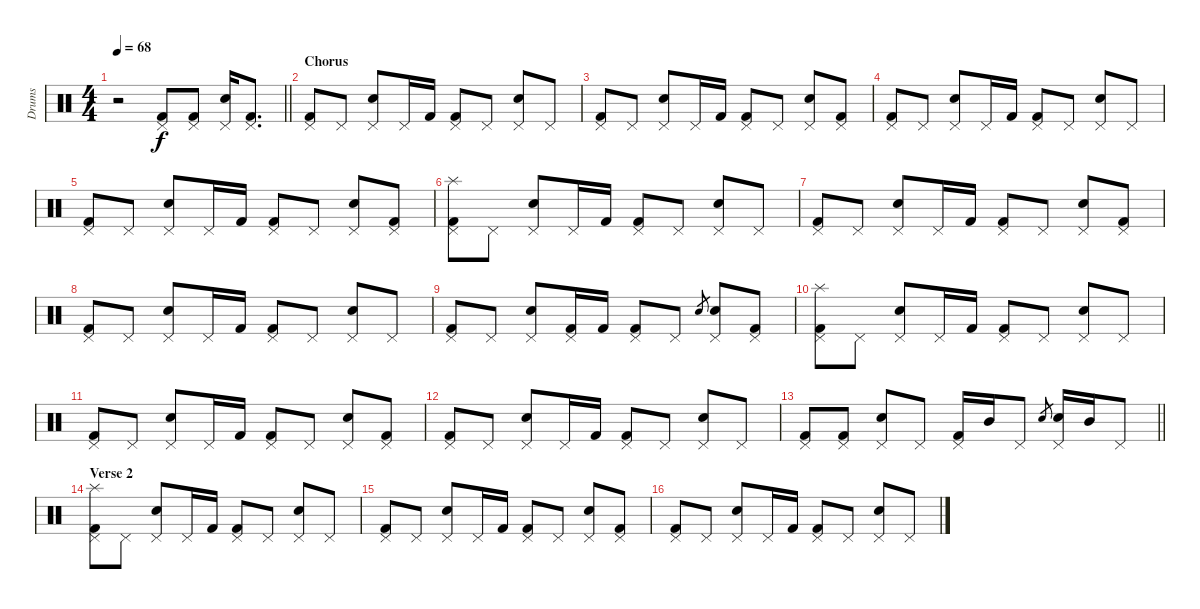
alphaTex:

\track ("Drums" "Drums") {instrument percussion}
\staff {score}
\articulation defaults
\ts (4 4)
\tempo 68
\clef neutral
\barLineRight lightlight
\ks c
r.2{dy f} ("Pedal Hi-Hat (hit)" "Kick (hit) 2").8 ("Pedal Hi-Hat (hit)" "Kick (hit) 2").8 ("Pedal Hi-Hat (hit)" "Electric Snare (hit)").16 ("Pedal Hi-Hat (hit)" "Kick (hit) 2").8{d} |
\section ("" "Chorus")
("Pedal Hi-Hat (hit)" "Kick (hit) 2").8 "Pedal Hi-Hat (hit)".8 ("Pedal Hi-Hat (hit)" "Electric Snare (hit)").8 "Pedal Hi-Hat (hit)".16 "Kick (hit) 2".16 ("Pedal Hi-Hat (hit)" "Kick (hit) 2").8 "Pedal Hi-Hat (hit)".8 ("Pedal Hi-Hat (hit)" "Electric Snare (hit)").8 "Pedal Hi-Hat (hit)".8 |
("Pedal Hi-Hat (hit)" "Kick (hit) 2").8 "Pedal Hi-Hat (hit)".8 ("Pedal Hi-Hat (hit)" "Electric Snare (hit)").8 "Pedal Hi-Hat (hit)".16 "Kick (hit) 2".16 ("Pedal Hi-Hat (hit)" "Kick (hit) 2").8 "Pedal Hi-Hat (hit)".8 ("Pedal Hi-Hat (hit)" "Electric Snare (hit)").8 ("Pedal Hi-Hat (hit)" "Kick (hit) 2").8 |
("Pedal Hi-Hat (hit)" "Kick (hit) 2").8 "Pedal Hi-Hat (hit)".8 ("Pedal Hi-Hat (hit)" "Electric Snare (hit)").8 "Pedal Hi-Hat (hit)".16 "Kick (hit) 2".16 ("Pedal Hi-Hat (hit)" "Kick (hit) 2").8 "Pedal Hi-Hat (hit)".8 ("Pedal Hi-Hat (hit)" "Electric Snare (hit)").8 "Pedal Hi-Hat (hit)".8 |
("Pedal Hi-Hat (hit)" "Kick (hit) 2").8 "Pedal Hi-Hat (hit)".8 ("Pedal Hi-Hat (hit)" "Electric Snare (hit)").8 "Pedal Hi-Hat (hit)".16 "Kick (hit) 2".16 ("Pedal Hi-Hat (hit)" "Kick (hit) 2").8 "Pedal Hi-Hat (hit)".8 ("Pedal Hi-Hat (hit)" "Electric Snare (hit)").8 ("Pedal Hi-Hat (hit)" "Kick (hit) 2").8 |
("Pedal Hi-Hat (hit)" "Splash (hit)" "Kick (hit) 2").8 "Pedal Hi-Hat (hit)".8 ("Pedal Hi-Hat (hit)" "Electric Snare (hit)").8 "Pedal Hi-Hat (hit)".16 "Kick (hit) 2".16 ("Pedal Hi-Hat (hit)" "Kick (hit) 2").8 "Pedal Hi-Hat (hit)".8 ("Pedal Hi-Hat (hit)" "Electric Snare (hit)").8 "Pedal Hi-Hat (hit)".8 |
("Pedal Hi-Hat (hit)" "Kick (hit) 2").8 "Pedal Hi-Hat (hit)".8 ("Pedal Hi-Hat (hit)" "Electric Snare (hit)").8 "Pedal Hi-Hat (hit)".16 "Kick (hit) 2".16 ("Pedal Hi-Hat (hit)" "Kick (hit) 2").8 "Pedal Hi-Hat (hit)".8 ("Pedal Hi-Hat (hit)" "Electric Snare (hit)").8 ("Pedal Hi-Hat (hit)" "Kick (hit) 2").8 |
("Pedal Hi-Hat (hit)" "Kick (hit) 2").8 "Pedal Hi-Hat (hit)".8 ("Pedal Hi-Hat (hit)" "Electric Snare (hit)").8 "Pedal Hi-Hat (hit)".16 "Kick (hit) 2".16 ("Pedal Hi-Hat (hit)" "Kick (hit) 2").8 "Pedal Hi-Hat (hit)".8 ("Pedal Hi-Hat (hit)" "Electric Snare (hit)").8 "Pedal Hi-Hat (hit)".8 |
("Pedal Hi-Hat (hit)" "Kick (hit) 2").8 "Pedal Hi-Hat (hit)".8 ("Pedal Hi-Hat (hit)" "Electric Snare (hit)").8 ("Pedal Hi-Hat (hit)" "Kick (hit) 2").16 "Kick (hit) 2".16 ("Pedal Hi-Hat (hit)" "Kick (hit) 2").8 "Pedal Hi-Hat (hit)".8 "Electric Snare (hit)"{h}.8{gr} ("Pedal Hi-Hat (hit)" "Electric Snare (hit)").8 ("Pedal Hi-Hat (hit)" "Kick (hit) 2").8 |
("Pedal Hi-Hat (hit)" "Splash (hit)" "Kick (hit) 2").8 "Pedal Hi-Hat (hit)".8 ("Pedal Hi-Hat (hit)" "Electric Snare (hit)").8 "Pedal Hi-Hat (hit)".16 "Kick (hit) 2".16 ("Pedal Hi-Hat (hit)" "Kick (hit) 2").8 "Pedal Hi-Hat (hit)".8 ("Pedal Hi-Hat (hit)" "Electric Snare (hit)").8 "Pedal Hi-Hat (hit)".8 |
("Pedal Hi-Hat (hit)" "Kick (hit) 2").8 "Pedal Hi-Hat (hit)".8 ("Pedal Hi-Hat (hit)" "Electric Snare (hit)").8 "Pedal Hi-Hat (hit)".16 "Kick (hit) 2".16 ("Pedal Hi-Hat (hit)" "Kick (hit) 2").8 "Pedal Hi-Hat (hit)".8 ("Pedal Hi-Hat (hit)" "Electric Snare (hit)").8 ("Pedal Hi-Hat (hit)" "Kick (hit) 2").8 |
("Pedal Hi-Hat (hit)" "Kick (hit) 2").8 "Pedal Hi-Hat (hit)".8 ("Pedal Hi-Hat (hit)" "Electric Snare (hit)").8 "Pedal Hi-Hat (hit)".16 "Kick (hit) 2".16 ("Pedal Hi-Hat (hit)" "Kick (hit) 2").8 "Pedal Hi-Hat (hit)".8 ("Pedal Hi-Hat (hit)" "Electric Snare (hit)").8 "Pedal Hi-Hat (hit)".8 |
\barLineRight lightlight
("Pedal Hi-Hat (hit)" "Kick (hit) 2").8 ("Pedal Hi-Hat (hit)" "Kick (hit) 2").8 ("Pedal Hi-Hat (hit)" "Electric Snare (hit)").8 "Pedal Hi-Hat (hit)".8 ("Pedal Hi-Hat (hit)" "Kick (hit) 2").16 "Mid Tom (hit)".16 "Pedal Hi-Hat (hit)".8 "Electric Snare (hit)"{h}.8{gr} ("Pedal Hi-Hat (hit)" "Electric Snare (hit)").16 "Mid Tom (hit)".16 "Pedal Hi-Hat (hit)".8 |
\section ("" "Verse 2")
("Pedal Hi-Hat (hit)" "Splash (hit)" "Kick (hit) 2").8 "Pedal Hi-Hat (hit)".8 ("Pedal Hi-Hat (hit)" "Electric Snare (hit)").8 "Pedal Hi-Hat (hit)".16 "Kick (hit) 2".16 ("Pedal Hi-Hat (hit)" "Kick (hit) 2").8 "Pedal Hi-Hat (hit)".8 ("Pedal Hi-Hat (hit)" "Electric Snare (hit)").8 "Pedal Hi-Hat (hit)".8 |
("Pedal Hi-Hat (hit)" "Kick (hit) 2").8 "Pedal Hi-Hat (hit)".8 ("Pedal Hi-Hat (hit)" "Electric Snare (hit)").8 "Pedal Hi-Hat (hit)".16 "Kick (hit) 2".16 ("Pedal Hi-Hat (hit)" "Kick (hit) 2").8 "Pedal Hi-Hat (hit)".8 ("Pedal Hi-Hat (hit)" "Electric Snare (hit)").8 ("Pedal Hi-Hat (hit)" "Kick (hit) 2").8 |
("Pedal Hi-Hat (hit)" "Kick (hit) 2").8 "Pedal Hi-Hat (hit)".8 ("Pedal Hi-Hat (hit)" "Electric Snare (hit)").8 "Pedal Hi-Hat (hit)".16 "Kick (hit) 2".16 ("Pedal Hi-Hat (hit)" "Kick (hit) 2").8 "Pedal Hi-Hat (hit)".8 ("Pedal Hi-Hat (hit)" "Electric Snare (hit)").8 "Pedal Hi-Hat (hit)".8
